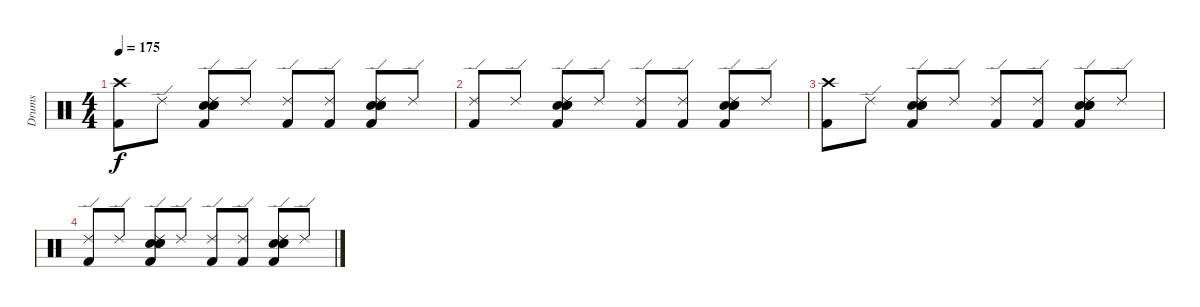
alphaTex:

\track ("Drums" "Drums") {instrument percussion}
\staff {score}
\articulation defaults
\ts (4 4)
\tempo 175
\clef neutral
\ks c
("Crash high (hit)" "Kick (hit) 2").8{dy f} "Ride (edge) 2".8 ("Ride (edge) 2" "Electric Snare (hit)" "Electric Snare (hit)" "Snare (hit) 2" "Kick (hit) 2").8 "Ride (edge) 2".8 ("Ride (edge) 2" "Kick (hit) 2").8 ("Ride (edge) 2" "Kick (hit) 2").8 ("Ride (edge) 2" "Electric Snare (hit)" "Electric Snare (hit)" "Snare (hit) 2" "Kick (hit) 2").8 "Ride (edge) 2".8 |
("Ride (edge) 2" "Kick (hit) 2").8 "Ride (edge) 2".8 ("Ride (edge) 2" "Electric Snare (hit)" "Electric Snare (hit)" "Snare (hit) 2" "Kick (hit) 2").8 "Ride (edge) 2".8 ("Ride (edge) 2" "Kick (hit) 2").8 ("Ride (edge) 2" "Kick (hit) 2").8 ("Ride (edge) 2" "Electric Snare (hit)" "Electric Snare (hit)" "Snare (hit) 2" "Kick (hit) 2").8 "Ride (edge) 2".8 |
("Crash high (hit)" "Kick (hit) 2").8 "Ride (edge) 2".8 ("Ride (edge) 2" "Electric Snare (hit)" "Electric Snare (hit)" "Snare (hit) 2" "Kick (hit) 2").8 "Ride (edge) 2".8 ("Ride (edge) 2" "Kick (hit) 2").8 ("Ride (edge) 2" "Kick (hit) 2").8 ("Ride (edge) 2" "Electric Snare (hit)" "Electric Snare (hit)" "Snare (hit) 2" "Kick (hit) 2").8 "Ride (edge) 2".8 |
("Ride (edge) 2" "Kick (hit) 2").8 "Ride (edge) 2".8 ("Ride (edge) 2" "Electric Snare (hit)" "Electric Snare (hit)" "Snare (hit) 2" "Kick (hit) 2").8 "Ride (edge) 2".8 ("Ride (edge) 2" "Kick (hit) 2").8 ("Ride (edge) 2" "Kick (hit) 2").8 ("Ride (edge) 2" "Electric Snare (hit)" "Electric Snare (hit)" "Snare (hit) 2" "Kick (hit) 2").8 "Ride (edge) 2".8
